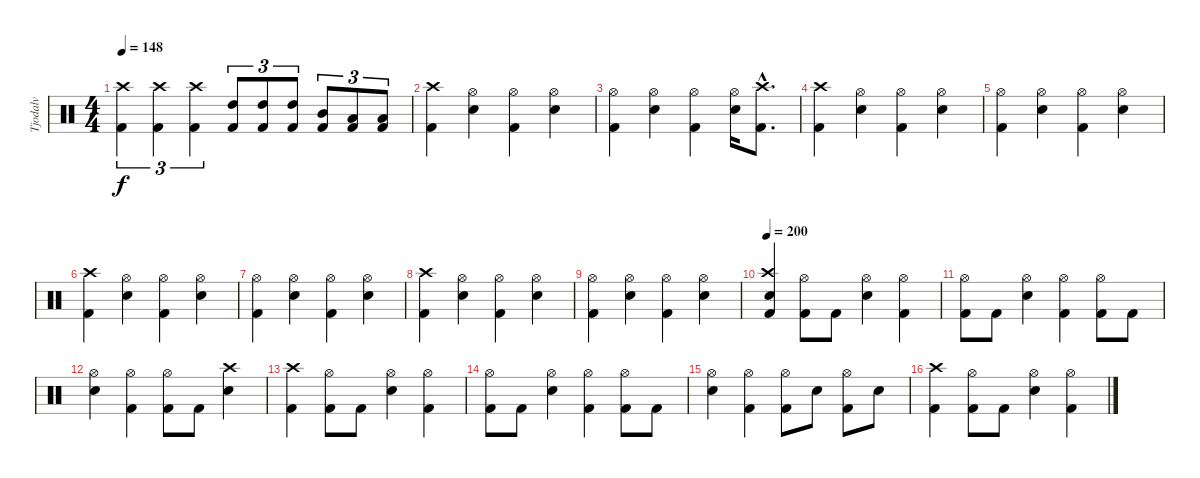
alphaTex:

\track ("Tjodalv" "Tjodalv") {instrument percussion}
\staff {score}
\articulation defaults
\ts (4 4)
\tempo 148
\clef neutral
\ks c
("Kick (hit) 2" "Crash high (hit)").4{tu (3 2) dy f} ("Kick (hit) 2" "Crash high (hit)").4{tu (3 2)} ("Kick (hit) 2" "Crash high (hit)").4{tu (3 2)} ("Kick (hit) 2" "High Tom (hit)").8{tu (3 2)} ("Kick (hit) 2" "High Tom (hit)").8{tu (3 2)} ("Kick (hit) 2" "High Tom (hit)").8{tu (3 2)} ("Kick (hit) 2" "Mid Tom (hit)").8{tu (3 2)} ("Kick (hit) 2" "Low Tom (hit)").8{tu (3 2)} ("Kick (hit) 2" "Low Tom (hit)").8{tu (3 2)} |
("Kick (hit) 2" "Crash high (hit)").4 ("Snare (hit) 2" "Hi-Hat (open)").4 ("Kick (hit) 2" "Hi-Hat (open)").4 ("Snare (hit) 2" "Hi-Hat (open)").4 |
("Kick (hit) 2" "Hi-Hat (open)").4 ("Snare (hit) 2" "Hi-Hat (open)").4 ("Kick (hit) 2" "Hi-Hat (open)").4 ("Snare (hit) 2" "Hi-Hat (open)").16 ("Kick (hit) 2"{hac} "Crash high (hit)"{hac}).8{d} |
("Kick (hit) 2" "Crash high (hit)").4 ("Snare (hit) 2" "Hi-Hat (open)").4 ("Kick (hit) 2" "Hi-Hat (open)").4 ("Snare (hit) 2" "Hi-Hat (open)").4 |
("Kick (hit) 2" "Hi-Hat (open)").4 ("Snare (hit) 2" "Hi-Hat (open)").4 ("Kick (hit) 2" "Hi-Hat (open)").4 ("Snare (hit) 2" "Hi-Hat (open)").4 |
("Kick (hit) 2" "Crash high (hit)").4 ("Snare (hit) 2" "Hi-Hat (open)").4 ("Kick (hit) 2" "Hi-Hat (open)").4 ("Snare (hit) 2" "Hi-Hat (open)").4 |
("Kick (hit) 2" "Hi-Hat (open)").4 ("Snare (hit) 2" "Hi-Hat (open)").4 ("Kick (hit) 2" "Hi-Hat (open)").4 ("Snare (hit) 2" "Hi-Hat (open)").4 |
("Kick (hit) 2" "Crash high (hit)").4 ("Snare (hit) 2" "Hi-Hat (open)").4 ("Kick (hit) 2" "Hi-Hat (open)").4 ("Snare (hit) 2" "Hi-Hat (open)").4 |
("Kick (hit) 2" "Hi-Hat (open)").4 ("Snare (hit) 2" "Hi-Hat (open)").4 ("Kick (hit) 2" "Hi-Hat (open)").4 ("Snare (hit) 2" "Hi-Hat (open)").4 |
\tempo 200
("Kick (hit) 2" "Snare (hit) 2" "Crash high (hit)").4 ("Kick (hit) 2" "Hi-Hat (open)").8 "Kick (hit) 2".8 ("Snare (hit) 2" "Hi-Hat (open)").4 ("Kick (hit) 2" "Hi-Hat (open)").4 |
("Kick (hit) 2" "Hi-Hat (open)").8 "Kick (hit) 2".8 ("Snare (hit) 2" "Hi-Hat (open)").4 ("Kick (hit) 2" "Hi-Hat (open)").4 ("Kick (hit) 2" "Hi-Hat (open)").8 "Kick (hit) 2".8 |
("Snare (hit) 2" "Hi-Hat (open)").4 ("Kick (hit) 2" "Hi-Hat (open)").4 ("Kick (hit) 2" "Hi-Hat (open)").8 "Kick (hit) 2".8 ("Snare (hit) 2" "Crash high (hit)").4 |
("Kick (hit) 2" "Crash high (hit)").4 ("Kick (hit) 2" "Hi-Hat (open)").8 "Kick (hit) 2".8 ("Snare (hit) 2" "Hi-Hat (open)").4 ("Kick (hit) 2" "Hi-Hat (open)").4 |
("Kick (hit) 2" "Hi-Hat (open)").8 "Kick (hit) 2".8 ("Snare (hit) 2" "Hi-Hat (open)").4 ("Kick (hit) 2" "Hi-Hat (open)").4 ("Kick (hit) 2" "Hi-Hat (open)").8 "Kick (hit) 2".8 |
("Snare (hit) 2" "Hi-Hat (open)").4 ("Kick (hit) 2" "Hi-Hat (open)").4 ("Kick (hit) 2" "Hi-Hat (open)").8 "Snare (hit) 2".8 ("Kick (hit) 2" "Hi-Hat (open)").8 "Snare (hit) 2".8 |
("Kick (hit) 2" "Crash high (hit)").4 ("Kick (hit) 2" "Hi-Hat (open)").8 "Kick (hit) 2".8 ("Snare (hit) 2" "Hi-Hat (open)").4 ("Kick (hit) 2" "Hi-Hat (open)").4
